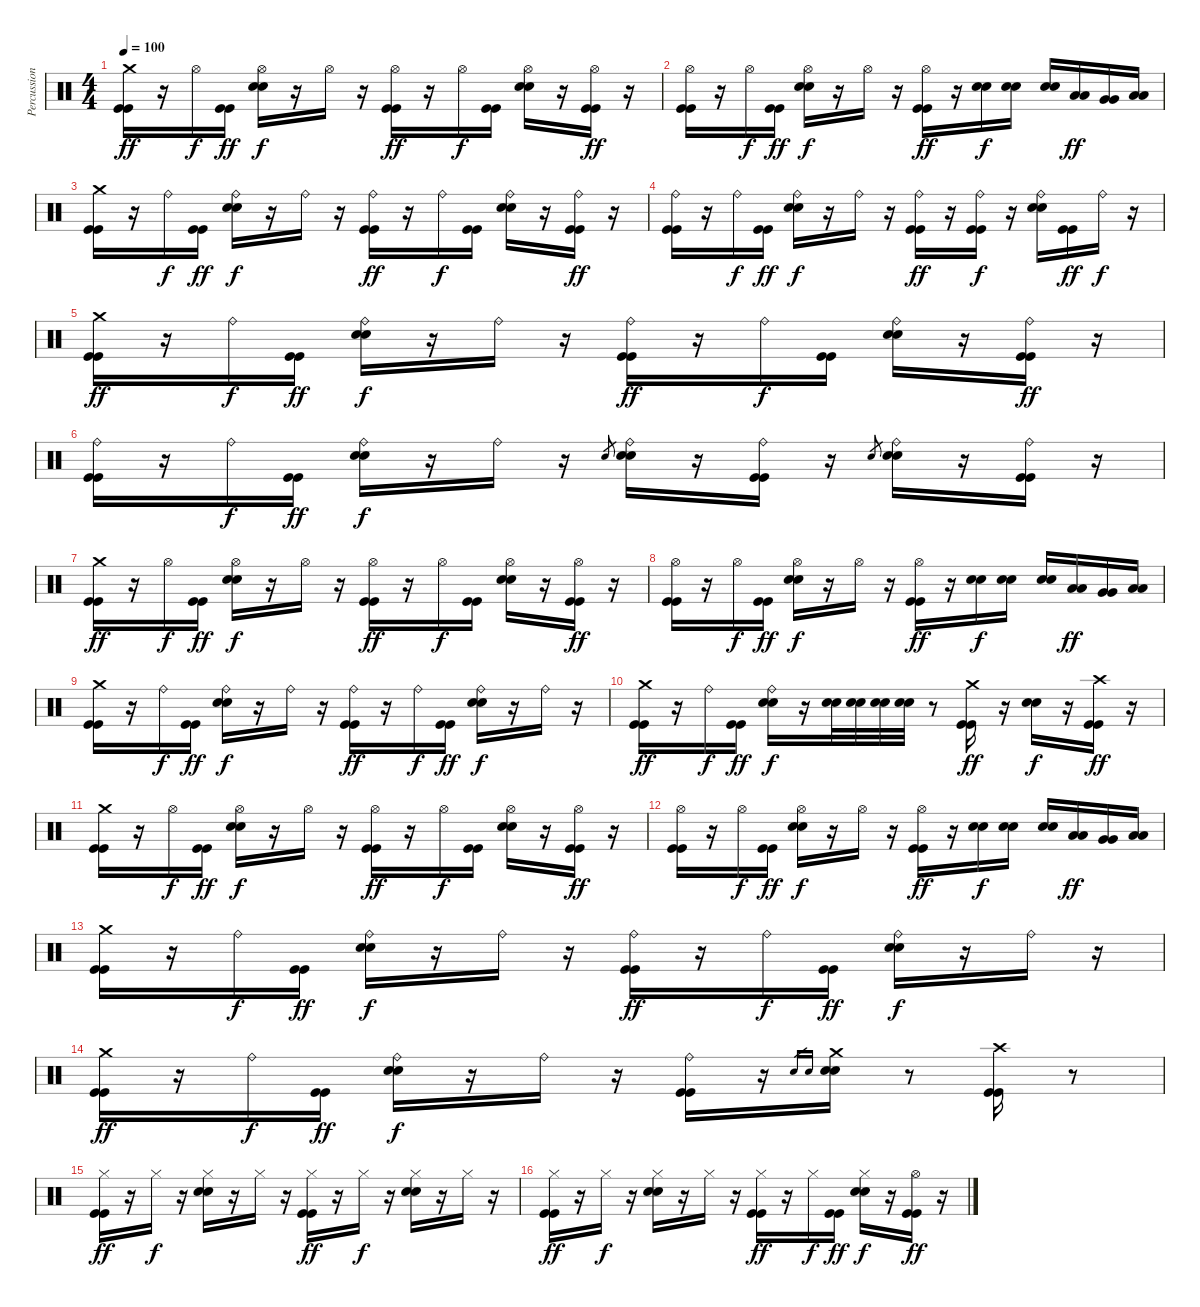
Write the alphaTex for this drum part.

\track ("Percussions" "Percussion") {instrument percussion}
\staff {score}
\articulation defaults
\ts (4 4)
\tempo 100
\clef neutral
\ks c
("Crash medium (hit)" "Kick (hit)" "Kick (hit)").16{dy ff} r.16 "Hi-Hat (open)".16{dy f} ("Kick (hit)" "Kick (hit)").16{dy ff} ("Hi-Hat (open)" "Electric Snare (hit)" "Electric Snare (hit)").16{dy f} r.16 "Hi-Hat (open)".16 r.16 ("Hi-Hat (open)" "Kick (hit)" "Kick (hit)").16{dy ff} r.16 "Hi-Hat (open)".16{dy f} ("Kick (hit)" "Kick (hit)").16 ("Hi-Hat (open)" "Electric Snare (hit)" "Electric Snare (hit)").16 r.16 ("Hi-Hat (open)" "Kick (hit)" "Kick (hit)").16{dy ff} r.16 |
("Hi-Hat (open)" "Kick (hit)" "Kick (hit)").16 r.16 "Hi-Hat (open)".16{dy f} ("Kick (hit)" "Kick (hit)").16{dy ff} ("Hi-Hat (open)" "Electric Snare (hit)" "Electric Snare (hit)").16{dy f} r.16 "Hi-Hat (open)".16 r.16 ("Hi-Hat (open)" "Kick (hit)" "Kick (hit)").16{dy ff} r.16 ("Electric Snare (hit)" "Electric Snare (hit)").16{dy f} ("Electric Snare (hit)" "Electric Snare (hit)").16 ("Electric Snare (hit)" "Electric Snare (hit)").16 ("Low Tom (hit)" "Low Tom (hit)").16{dy ff} ("Very Low Tom (hit)" "Very Low Tom (hit)").16 ("Low Floor Tom (hit)" "Low Floor Tom (hit)").16 |
("Crash medium (hit)" "Kick (hit)" "Kick (hit)").16 r.16 "Ride (bell)".16{dy f} ("Kick (hit)" "Kick (hit)").16{dy ff} ("Ride (bell)" "Electric Snare (hit)" "Electric Snare (hit)").16{dy f} r.16 "Ride (bell)".16 r.16 ("Ride (bell)" "Kick (hit)" "Kick (hit)").16{dy ff} r.16 "Ride (bell)".16{dy f} ("Kick (hit)" "Kick (hit)").16 ("Ride (bell)" "Electric Snare (hit)" "Electric Snare (hit)").16 r.16 ("Ride (bell)" "Kick (hit)" "Kick (hit)").16{dy ff} r.16 |
("Ride (bell)" "Kick (hit)" "Kick (hit)").16 r.16 "Ride (bell)".16{dy f} ("Kick (hit)" "Kick (hit)").16{dy ff} ("Ride (bell)" "Electric Snare (hit)" "Electric Snare (hit)").16{dy f} r.16 "Ride (bell)".16 r.16 ("Ride (bell)" "Kick (hit)" "Kick (hit)").16{dy ff} r.16 ("Ride (bell)" "Kick (hit)" "Kick (hit)").16{dy f} r.16 ("Ride (bell)" "Electric Snare (hit)" "Electric Snare (hit)").16 ("Kick (hit)" "Kick (hit)").16{dy ff} "Ride (bell)".16{dy f} r.16 |
("Crash medium (hit)" "Kick (hit)" "Kick (hit)").16{dy ff} r.16 "Ride (bell)".16{dy f} ("Kick (hit)" "Kick (hit)").16{dy ff} ("Ride (bell)" "Electric Snare (hit)" "Electric Snare (hit)").16{dy f} r.16 "Ride (bell)".16 r.16 ("Ride (bell)" "Kick (hit)" "Kick (hit)").16{dy ff} r.16 "Ride (bell)".16{dy f} ("Kick (hit)" "Kick (hit)").16 ("Ride (bell)" "Electric Snare (hit)" "Electric Snare (hit)").16 r.16 ("Ride (bell)" "Kick (hit)" "Kick (hit)").16{dy ff} r.16 |
("Ride (bell)" "Kick (hit)" "Kick (hit)").16 r.16 "Ride (bell)".16{dy f} ("Kick (hit)" "Kick (hit)").16{dy ff} ("Ride (bell)" "Electric Snare (hit)" "Electric Snare (hit)").16{dy f} r.16 "Ride (bell)".16 r.16 "Electric Snare (hit)".8{gr} ("Ride (bell)" "Electric Snare (hit)" "Electric Snare (hit)").16 r.16 ("Ride (bell)" "Kick (hit)" "Kick (hit)").16 r.16 "Electric Snare (hit)".8{gr} ("Ride (bell)" "Electric Snare (hit)" "Electric Snare (hit)").16 r.16 ("Ride (bell)" "Kick (hit)" "Kick (hit)").16 r.16 |
("Crash medium (hit)" "Kick (hit)" "Kick (hit)").16{dy ff} r.16 "Hi-Hat (open)".16{dy f} ("Kick (hit)" "Kick (hit)").16{dy ff} ("Hi-Hat (open)" "Electric Snare (hit)" "Electric Snare (hit)").16{dy f} r.16 "Hi-Hat (open)".16 r.16 ("Hi-Hat (open)" "Kick (hit)" "Kick (hit)").16{dy ff} r.16 "Hi-Hat (open)".16{dy f} ("Kick (hit)" "Kick (hit)").16 ("Hi-Hat (open)" "Electric Snare (hit)" "Electric Snare (hit)").16 r.16 ("Hi-Hat (open)" "Kick (hit)" "Kick (hit)").16{dy ff} r.16 |
("Hi-Hat (open)" "Kick (hit)" "Kick (hit)").16 r.16 "Hi-Hat (open)".16{dy f} ("Kick (hit)" "Kick (hit)").16{dy ff} ("Hi-Hat (open)" "Electric Snare (hit)" "Electric Snare (hit)").16{dy f} r.16 "Hi-Hat (open)".16 r.16 ("Hi-Hat (open)" "Kick (hit)" "Kick (hit)").16{dy ff} r.16 ("Electric Snare (hit)" "Electric Snare (hit)").16{dy f} ("Electric Snare (hit)" "Electric Snare (hit)").16 ("Electric Snare (hit)" "Electric Snare (hit)").16 ("Low Tom (hit)" "Low Tom (hit)").16{dy ff} ("Very Low Tom (hit)" "Very Low Tom (hit)").16 ("Low Floor Tom (hit)" "Low Floor Tom (hit)").16 |
("Crash medium (hit)" "Kick (hit)" "Kick (hit)").16 r.16 "Ride (bell)".16{dy f} ("Kick (hit)" "Kick (hit)").16{dy ff} ("Ride (bell)" "Electric Snare (hit)" "Electric Snare (hit)").16{dy f} r.16 "Ride (bell)".16 r.16 ("Ride (bell)" "Kick (hit)" "Kick (hit)").16{dy ff} r.16 "Ride (bell)".16{dy f} ("Kick (hit)" "Kick (hit)").16{dy ff} ("Ride (bell)" "Electric Snare (hit)" "Electric Snare (hit)").16{dy f} r.16 "Ride (bell)".16 r.16 |
("Crash medium (hit)" "Kick (hit)" "Kick (hit)").16{dy ff} r.16 "Ride (bell)".16{dy f} ("Kick (hit)" "Kick (hit)").16{dy ff} ("Ride (bell)" "Electric Snare (hit)" "Electric Snare (hit)").16{dy f} r.16 ("Electric Snare (hit)" "Electric Snare (hit)").32 ("Electric Snare (hit)" "Electric Snare (hit)").32 ("Electric Snare (hit)" "Electric Snare (hit)").32 ("Electric Snare (hit)" "Electric Snare (hit)").32 r.8 ("Crash medium (hit)" "Kick (hit)" "Kick (hit)").16{dy ff} r.16 ("Electric Snare (hit)" "Electric Snare (hit)").16{dy f} r.16 ("Crash high (hit)" "Kick (hit)" "Kick (hit)").16{dy ff} r.16 |
("Crash medium (hit)" "Kick (hit)" "Kick (hit)").16 r.16 "Hi-Hat (open)".16{dy f} ("Kick (hit)" "Kick (hit)").16{dy ff} ("Hi-Hat (open)" "Electric Snare (hit)" "Electric Snare (hit)").16{dy f} r.16 "Hi-Hat (open)".16 r.16 ("Hi-Hat (open)" "Kick (hit)" "Kick (hit)").16{dy ff} r.16 "Hi-Hat (open)".16{dy f} ("Kick (hit)" "Kick (hit)").16 ("Hi-Hat (open)" "Electric Snare (hit)" "Electric Snare (hit)").16 r.16 ("Hi-Hat (open)" "Kick (hit)" "Kick (hit)").16{dy ff} r.16 |
("Hi-Hat (open)" "Kick (hit)" "Kick (hit)").16 r.16 "Hi-Hat (open)".16{dy f} ("Kick (hit)" "Kick (hit)").16{dy ff} ("Hi-Hat (open)" "Electric Snare (hit)" "Electric Snare (hit)").16{dy f} r.16 "Hi-Hat (open)".16 r.16 ("Hi-Hat (open)" "Kick (hit)" "Kick (hit)").16{dy ff} r.16 ("Electric Snare (hit)" "Electric Snare (hit)").16{dy f} ("Electric Snare (hit)" "Electric Snare (hit)").16 ("Electric Snare (hit)" "Electric Snare (hit)").16 ("Low Tom (hit)" "Low Tom (hit)").16{dy ff} ("Very Low Tom (hit)" "Very Low Tom (hit)").16 ("Low Floor Tom (hit)" "Low Floor Tom (hit)").16 |
("Crash medium (hit)" "Kick (hit)" "Kick (hit)").16 r.16 "Ride (bell)".16{dy f} ("Kick (hit)" "Kick (hit)").16{dy ff} ("Ride (bell)" "Electric Snare (hit)" "Electric Snare (hit)").16{dy f} r.16 "Ride (bell)".16 r.16 ("Ride (bell)" "Kick (hit)" "Kick (hit)").16{dy ff} r.16 "Ride (bell)".16{dy f} ("Kick (hit)" "Kick (hit)").16{dy ff} ("Ride (bell)" "Electric Snare (hit)" "Electric Snare (hit)").16{dy f} r.16 "Ride (bell)".16 r.16 |
("Crash medium (hit)" "Kick (hit)" "Kick (hit)").16{dy ff} r.16 "Ride (bell)".16{dy f} ("Kick (hit)" "Kick (hit)").16{dy ff} ("Ride (bell)" "Electric Snare (hit)" "Electric Snare (hit)").16{dy f} r.16 "Ride (bell)".16 r.16 ("Ride (bell)" "Kick (hit)" "Kick (hit)").16 r.16 "Electric Snare (hit)".16{gr} "Electric Snare (hit)".16{gr} ("Crash medium (hit)" "Electric Snare (hit)" "Electric Snare (hit)").16 r.8 ("Crash high (hit)" "Kick (hit)" "Kick (hit)").16 r.8 |
("Hi-Hat (closed)" "Kick (hit)" "Kick (hit)").16{dy ff} r.16 "Hi-Hat (closed)".16{dy f} r.16 ("Hi-Hat (closed)" "Electric Snare (hit)" "Electric Snare (hit)").16 r.16 "Hi-Hat (closed)".16 r.16 ("Hi-Hat (closed)" "Kick (hit)" "Kick (hit)").16{dy ff} r.16 "Hi-Hat (closed)".16{dy f} r.16 ("Hi-Hat (closed)" "Electric Snare (hit)" "Electric Snare (hit)").16 r.16 "Hi-Hat (closed)".16 r.16 |
("Hi-Hat (closed)" "Kick (hit)" "Kick (hit)").16{dy ff} r.16 "Hi-Hat (closed)".16{dy f} r.16 ("Hi-Hat (closed)" "Electric Snare (hit)" "Electric Snare (hit)").16 r.16 "Hi-Hat (closed)".16 r.16 ("Hi-Hat (closed)" "Kick (hit)" "Kick (hit)").16{dy ff} r.16 "Hi-Hat (closed)".16{dy f} ("Kick (hit)" "Kick (hit)").16{dy ff} ("Hi-Hat (closed)" "Electric Snare (hit)" "Electric Snare (hit)").16{dy f} r.16 ("Hi-Hat (open)" "Kick (hit)" "Kick (hit)").16{dy ff} r.16
